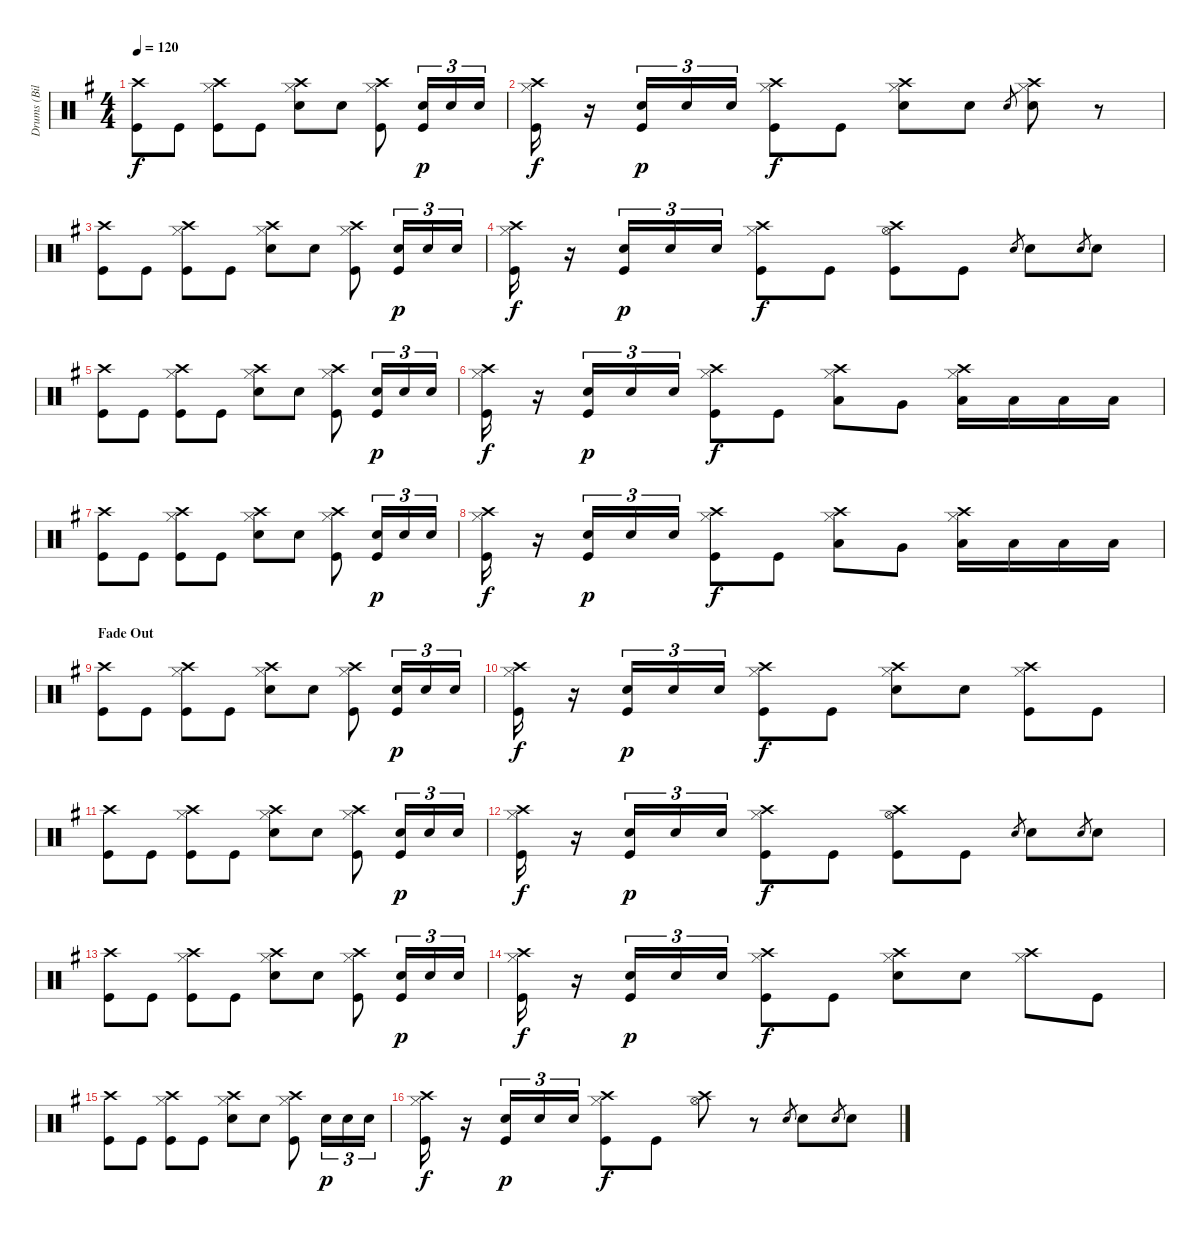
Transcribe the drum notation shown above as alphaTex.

\track ("Drums (Bill Ward)" "Drums (Bil") {instrument percussion}
\staff {score}
\articulation defaults
\ts (4 4)
\tempo 120
\clef neutral
\ks g
("Crash high (hit)" "Kick (hit)").8{dy f} "Kick (hit)".8 ("Crash high (hit)" "Hi-Hat (closed)" "Kick (hit)").8 "Kick (hit)".8 ("Crash high (hit)" "Hi-Hat (closed)" "Electric Snare (hit)").8 "Electric Snare (hit)".8 ("Crash high (hit)" "Hi-Hat (closed)" "Kick (hit)").8 ("Electric Snare (hit)" "Kick (hit)").16{tu (3 2) dy p} "Electric Snare (hit)".16{tu (3 2)} "Electric Snare (hit)".16{tu (3 2)} |
("Crash high (hit)" "Hi-Hat (closed)" "Kick (hit)").16{dy f} r.16 ("Electric Snare (hit)" "Kick (hit)").16{tu (3 2) dy p} "Electric Snare (hit)".16{tu (3 2)} "Electric Snare (hit)".16{tu (3 2)} ("Crash high (hit)" "Hi-Hat (closed)" "Kick (hit)").8{dy f} "Kick (hit)".8 ("Crash high (hit)" "Hi-Hat (closed)" "Electric Snare (hit)").8 "Electric Snare (hit)".8 "Electric Snare (hit)".8{gr} ("Crash high (hit)" "Hi-Hat (closed)" "Electric Snare (hit)").8 r.8 |
("Crash high (hit)" "Kick (hit)").8 "Kick (hit)".8 ("Crash high (hit)" "Hi-Hat (closed)" "Kick (hit)").8 "Kick (hit)".8 ("Crash high (hit)" "Hi-Hat (closed)" "Electric Snare (hit)").8 "Electric Snare (hit)".8 ("Crash high (hit)" "Hi-Hat (closed)" "Kick (hit)").8 ("Electric Snare (hit)" "Kick (hit)").16{tu (3 2) dy p} "Electric Snare (hit)".16{tu (3 2)} "Electric Snare (hit)".16{tu (3 2)} |
("Crash high (hit)" "Hi-Hat (closed)" "Kick (hit)").16{dy f} r.16 ("Electric Snare (hit)" "Kick (hit)").16{tu (3 2) dy p} "Electric Snare (hit)".16{tu (3 2)} "Electric Snare (hit)".16{tu (3 2)} ("Crash high (hit)" "Hi-Hat (closed)" "Kick (hit)").8{dy f} "Kick (hit)".8 ("Crash high (hit)" "Hi-Hat (open)" "Kick (hit)").8 "Kick (hit)".8 "Electric Snare (hit)".8{gr} "Electric Snare (hit)".8 "Electric Snare (hit)".8{gr} "Electric Snare (hit)".8 |
("Crash high (hit)" "Kick (hit)").8 "Kick (hit)".8 ("Crash high (hit)" "Hi-Hat (closed)" "Kick (hit)").8 "Kick (hit)".8 ("Crash high (hit)" "Hi-Hat (closed)" "Electric Snare (hit)").8 "Electric Snare (hit)".8 ("Crash high (hit)" "Hi-Hat (closed)" "Kick (hit)").8 ("Electric Snare (hit)" "Kick (hit)").16{tu (3 2) dy p} "Electric Snare (hit)".16{tu (3 2)} "Electric Snare (hit)".16{tu (3 2)} |
("Crash high (hit)" "Hi-Hat (closed)" "Kick (hit)").16{dy f} r.16 ("Electric Snare (hit)" "Kick (hit)").16{tu (3 2) dy p} "Electric Snare (hit)".16{tu (3 2)} "Electric Snare (hit)".16{tu (3 2)} ("Crash high (hit)" "Hi-Hat (closed)" "Kick (hit)").8{dy f} "Kick (hit)".8 ("Crash high (hit)" "Hi-Hat (closed)" "Low Tom (hit)").8 "Very Low Tom (hit)".8 ("Crash high (hit)" "Hi-Hat (closed)" "Low Floor Tom (hit)").16 "Low Floor Tom (hit)".16 "Low Floor Tom (hit)".16 "Low Floor Tom (hit)".16 |
("Crash high (hit)" "Kick (hit)").8 "Kick (hit)".8 ("Crash high (hit)" "Hi-Hat (closed)" "Kick (hit)").8 "Kick (hit)".8 ("Crash high (hit)" "Hi-Hat (closed)" "Electric Snare (hit)").8 "Electric Snare (hit)".8 ("Crash high (hit)" "Hi-Hat (closed)" "Kick (hit)").8 ("Electric Snare (hit)" "Kick (hit)").16{tu (3 2) dy p} "Electric Snare (hit)".16{tu (3 2)} "Electric Snare (hit)".16{tu (3 2)} |
("Crash high (hit)" "Hi-Hat (closed)" "Kick (hit)").16{dy f} r.16 ("Electric Snare (hit)" "Kick (hit)").16{tu (3 2) dy p} "Electric Snare (hit)".16{tu (3 2)} "Electric Snare (hit)".16{tu (3 2)} ("Crash high (hit)" "Hi-Hat (closed)" "Kick (hit)").8{dy f} "Kick (hit)".8 ("Crash high (hit)" "Hi-Hat (closed)" "Low Tom (hit)").8 "Very Low Tom (hit)".8 ("Crash high (hit)" "Hi-Hat (closed)" "Low Floor Tom (hit)").16 "Low Floor Tom (hit)".16 "Low Floor Tom (hit)".16 "Low Floor Tom (hit)".16 |
\section ("" "Fade Out")
("Crash high (hit)" "Kick (hit)").8 "Kick (hit)".8 ("Crash high (hit)" "Hi-Hat (closed)" "Kick (hit)").8 "Kick (hit)".8 ("Crash high (hit)" "Hi-Hat (closed)" "Electric Snare (hit)").8 "Electric Snare (hit)".8 ("Crash high (hit)" "Hi-Hat (closed)" "Kick (hit)").8 ("Electric Snare (hit)" "Kick (hit)").16{tu (3 2) dy p} "Electric Snare (hit)".16{tu (3 2)} "Electric Snare (hit)".16{tu (3 2)} |
("Crash high (hit)" "Hi-Hat (closed)" "Kick (hit)").16{dy f} r.16 ("Electric Snare (hit)" "Kick (hit)").16{tu (3 2) dy p} "Electric Snare (hit)".16{tu (3 2)} "Electric Snare (hit)".16{tu (3 2)} ("Crash high (hit)" "Hi-Hat (closed)" "Kick (hit)").8{dy f} "Kick (hit)".8 ("Crash high (hit)" "Hi-Hat (closed)" "Electric Snare (hit)").8 "Electric Snare (hit)".8 ("Crash high (hit)" "Hi-Hat (closed)" "Kick (hit)").8 "Kick (hit)".8 |
("Crash high (hit)" "Kick (hit)").8 "Kick (hit)".8 ("Crash high (hit)" "Hi-Hat (closed)" "Kick (hit)").8 "Kick (hit)".8 ("Crash high (hit)" "Hi-Hat (closed)" "Electric Snare (hit)").8 "Electric Snare (hit)".8 ("Crash high (hit)" "Hi-Hat (closed)" "Kick (hit)").8 ("Electric Snare (hit)" "Kick (hit)").16{tu (3 2) dy p} "Electric Snare (hit)".16{tu (3 2)} "Electric Snare (hit)".16{tu (3 2)} |
("Crash high (hit)" "Hi-Hat (closed)" "Kick (hit)").16{dy f} r.16 ("Electric Snare (hit)" "Kick (hit)").16{tu (3 2) dy p} "Electric Snare (hit)".16{tu (3 2)} "Electric Snare (hit)".16{tu (3 2)} ("Crash high (hit)" "Hi-Hat (closed)" "Kick (hit)").8{dy f} "Kick (hit)".8 ("Crash high (hit)" "Hi-Hat (open)" "Kick (hit)").8 "Kick (hit)".8 "Electric Snare (hit)".8{gr} "Electric Snare (hit)".8 "Electric Snare (hit)".8{gr} "Electric Snare (hit)".8 |
("Crash high (hit)" "Kick (hit)").8 "Kick (hit)".8 ("Crash high (hit)" "Hi-Hat (closed)" "Kick (hit)").8 "Kick (hit)".8 ("Crash high (hit)" "Hi-Hat (closed)" "Electric Snare (hit)").8 "Electric Snare (hit)".8 ("Crash high (hit)" "Hi-Hat (closed)" "Kick (hit)").8 ("Electric Snare (hit)" "Kick (hit)").16{tu (3 2) dy p} "Electric Snare (hit)".16{tu (3 2)} "Electric Snare (hit)".16{tu (3 2)} |
("Crash high (hit)" "Hi-Hat (closed)" "Kick (hit)").16{dy f} r.16 ("Electric Snare (hit)" "Kick (hit)").16{tu (3 2) dy p} "Electric Snare (hit)".16{tu (3 2)} "Electric Snare (hit)".16{tu (3 2)} ("Crash high (hit)" "Hi-Hat (closed)" "Kick (hit)").8{dy f} "Kick (hit)".8 ("Crash high (hit)" "Hi-Hat (closed)" "Electric Snare (hit)").8 "Electric Snare (hit)".8 ("Crash high (hit)" "Hi-Hat (closed)").8 "Kick (hit)".8 |
("Crash high (hit)" "Kick (hit)").8 "Kick (hit)".8 ("Crash high (hit)" "Hi-Hat (closed)" "Kick (hit)").8 "Kick (hit)".8 ("Crash high (hit)" "Hi-Hat (closed)" "Electric Snare (hit)").8 "Electric Snare (hit)".8 ("Crash high (hit)" "Hi-Hat (closed)" "Kick (hit)").8 "Electric Snare (hit)".16{tu (3 2) dy p} "Electric Snare (hit)".16{tu (3 2)} "Electric Snare (hit)".16{tu (3 2)} |
("Crash high (hit)" "Hi-Hat (closed)" "Kick (hit)").16{dy f} r.16 ("Electric Snare (hit)" "Kick (hit)").16{tu (3 2) dy p} "Electric Snare (hit)".16{tu (3 2)} "Electric Snare (hit)".16{tu (3 2)} ("Crash high (hit)" "Hi-Hat (closed)" "Kick (hit)").8{dy f} "Kick (hit)".8 ("Crash high (hit)" "Hi-Hat (open)").8 r.8 "Electric Snare (hit)".8{gr} "Electric Snare (hit)".8 "Electric Snare (hit)".8{gr} "Electric Snare (hit)".8
